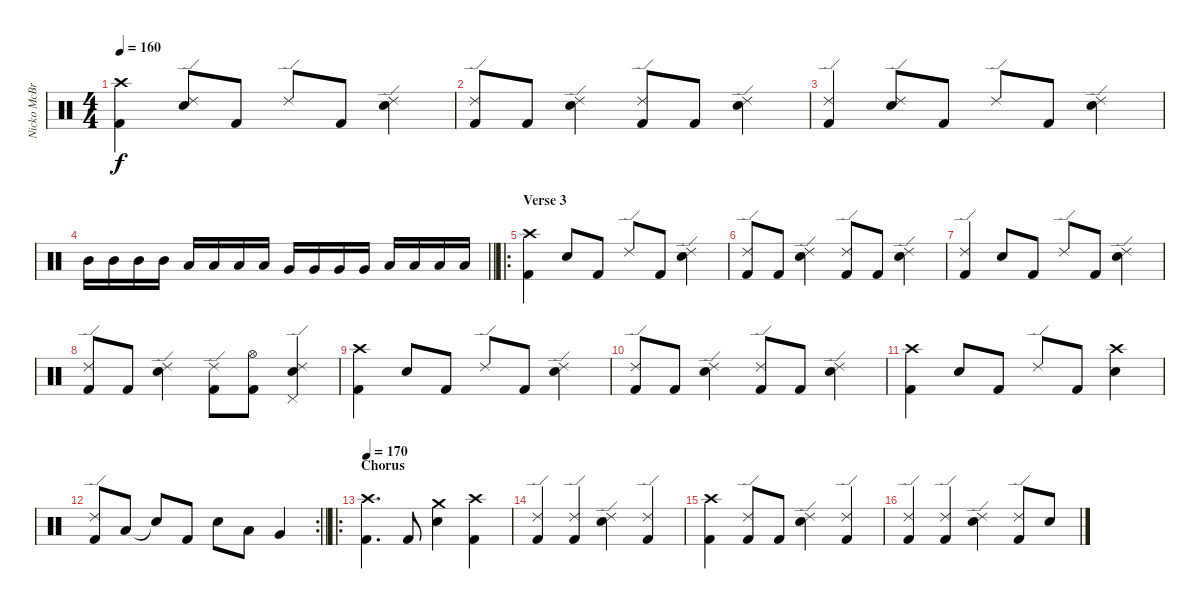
\track ("Nicko McBrain" "Nicko McBr") {instrument percussion}
\staff {score}
\articulation defaults
\ts (4 4)
\tempo 160
\clef neutral
\ks c
("Crash high (hit)" "Kick (hit) 2").4{dy f} ("Ride (edge) 2" "Electric Snare (hit)").8 "Kick (hit) 2".8 "Ride (edge) 2".8 "Kick (hit) 2".8 ("Ride (edge) 2" "Electric Snare (hit)").4 |
("Ride (edge) 2" "Kick (hit) 2").8 "Kick (hit) 2".8 ("Ride (edge) 2" "Electric Snare (hit)").4 ("Ride (edge) 2" "Kick (hit) 2").8 "Kick (hit) 2".8 ("Ride (edge) 2" "Electric Snare (hit)").4 |
("Ride (edge) 2" "Kick (hit) 2").4 ("Ride (edge) 2" "Electric Snare (hit)").8 "Kick (hit) 2".8 "Ride (edge) 2".8 "Kick (hit) 2".8 ("Ride (edge) 2" "Electric Snare (hit)").4 |
\barLineRight lightlight "Mid Tom (hit)".16 "Mid Tom (hit)".16 "Mid Tom (hit)".16 "Mid Tom (hit)".16 "Low Tom (hit)".16 "Low Tom (hit)".16 "Low Tom (hit)".16 "Low Tom (hit)".16 "Very Low Tom (hit)".16 "Very Low Tom (hit)".16 "Very Low Tom (hit)".16 "Very Low Tom (hit)".16 "Low Floor Tom (hit)".16 "Low Floor Tom (hit)".16 "Low Floor Tom (hit)".16 "Low Floor Tom (hit)".16
|
\ro
\section ("" "Verse 3")
("Crash high (hit)" "Kick (hit) 2").4 "Electric Snare (hit)".8 "Kick (hit) 2".8 "Ride (edge) 2".8 "Kick (hit) 2".8 ("Ride (edge) 2" "Electric Snare (hit)").4 |
("Ride (edge) 2" "Kick (hit) 2").8 "Kick (hit) 2".8 ("Ride (edge) 2" "Electric Snare (hit)").4 ("Ride (edge) 2" "Kick (hit) 2").8 "Kick (hit) 2".8 ("Ride (edge) 2" "Electric Snare (hit)").4 |
("Ride (edge) 2" "Kick (hit) 2").4 "Electric Snare (hit)".8 "Kick (hit) 2".8 "Ride (edge) 2".8 "Kick (hit) 2".8 ("Ride (edge) 2" "Electric Snare (hit)").4 |
("Ride (edge) 2" "Kick (hit) 2").8 "Kick (hit) 2".8 ("Ride (edge) 2" "Electric Snare (hit)").4 ("Ride (edge) 2" "Kick (hit) 2").8 ("Hi-Hat (open)" "Kick (hit) 2").8 ("Ride (edge) 2" "Pedal Hi-Hat (hit)" "Electric Snare (hit)").4 |
("Crash high (hit)" "Kick (hit) 2").4 "Electric Snare (hit)".8 "Kick (hit) 2".8 "Ride (edge) 2".8 "Kick (hit) 2".8 ("Ride (edge) 2" "Electric Snare (hit)").4 |
("Ride (edge) 2" "Kick (hit) 2").8 "Kick (hit) 2".8 ("Ride (edge) 2" "Electric Snare (hit)").4 ("Ride (edge) 2" "Kick (hit) 2").8 "Kick (hit) 2".8 ("Ride (edge) 2" "Electric Snare (hit)").4 |
("Crash high (hit)" "Kick (hit) 2").4 "Electric Snare (hit)".8 "Kick (hit) 2".8 "Ride (edge) 2".8 "Kick (hit) 2".8 ("Crash high (hit)" "Electric Snare (hit)").4 |
\rc 2
\barLineRight lightlight
("Ride (edge) 2" "Kick (hit) 2").8 "Low Tom (hit)".8 "Snare (hit)"{t}.8 "Kick (hit) 2".8 "Electric Snare (hit)".8 "Low Tom (hit)".8 "Very Low Tom (hit)".4 |
\ro
\section ("" "Chorus")
\tempo 170
("Crash high (hit)" "Kick (hit) 2").4{d} "Kick (hit) 2".8 ("Crash medium (hit)" "Electric Snare (hit)").4 ("Crash high (hit)" "Kick (hit) 2").4 |
("Ride (edge) 2" "Kick (hit) 2").4 ("Ride (edge) 2" "Kick (hit) 2").4 ("Ride (edge) 2" "Electric Snare (hit)").4 ("Ride (edge) 2" "Kick (hit) 2").4 |
("Crash high (hit)" "Kick (hit) 2").4 ("Ride (edge) 2" "Kick (hit) 2").8 "Kick (hit) 2".8 ("Ride (edge) 2" "Electric Snare (hit)").4 ("Ride (edge) 2" "Kick (hit) 2").4 |
("Ride (edge) 2" "Kick (hit) 2").4 ("Ride (edge) 2" "Kick (hit) 2").4 ("Ride (edge) 2" "Electric Snare (hit)").4 ("Ride (edge) 2" "Kick (hit) 2").8 "Electric Snare (hit)".8
